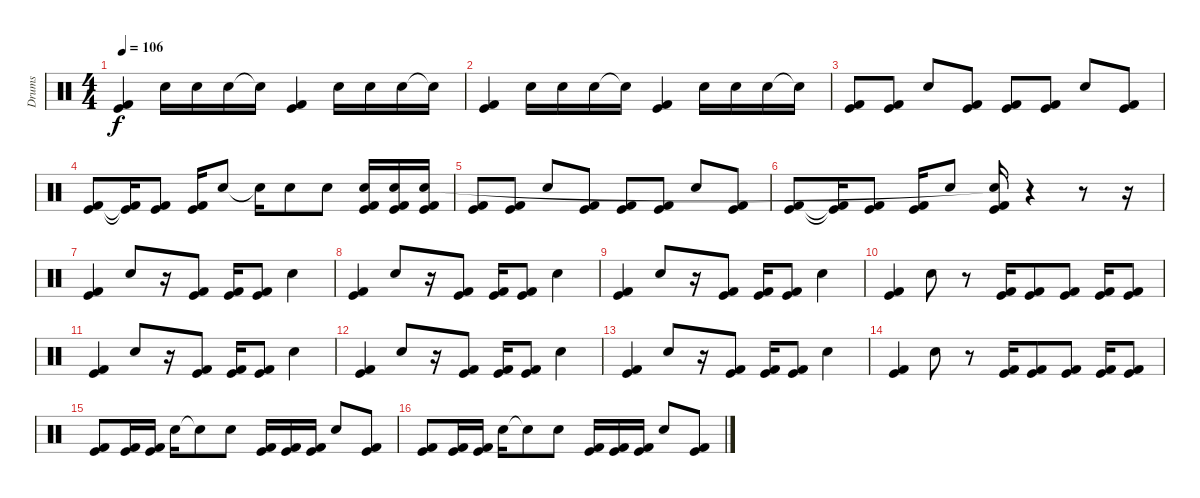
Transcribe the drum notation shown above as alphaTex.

\track ("Drums" "Drums") {instrument percussion}
\staff {score}
\articulation defaults
\ts (4 4)
\tempo 106
\clef neutral
\ks c
("Kick (hit)" "Kick (hit) 2").4{dy f} "Electric Snare (hit)".16 "Electric Snare (hit)".16 "Electric Snare (hit)".16 "Electric Snare (hit)"{t}.16 ("Kick (hit)" "Kick (hit) 2").4 "Electric Snare (hit)".16 "Electric Snare (hit)".16 "Electric Snare (hit)".16 "Electric Snare (hit)"{t}.16 |
("Kick (hit)" "Kick (hit) 2").4 "Electric Snare (hit)".16 "Electric Snare (hit)".16 "Electric Snare (hit)".16 "Electric Snare (hit)"{t}.16 ("Kick (hit)" "Kick (hit) 2").4 "Electric Snare (hit)".16 "Electric Snare (hit)".16 "Electric Snare (hit)".16 "Snare (hit)"{t}.16 |
("Kick (hit)" "Kick (hit) 2").8 ("Kick (hit)" "Kick (hit) 2").8 "Electric Snare (hit)".8 ("Kick (hit)" "Kick (hit) 2").8 ("Kick (hit)" "Kick (hit) 2").8 ("Kick (hit)" "Kick (hit) 2").8 "Electric Snare (hit)".8 ("Kick (hit)" "Kick (hit) 2").8 |
("Kick (hit)" "Kick (hit) 2").8 ("Kick (hit)"{t} "Kick (hit) 2"{t}).16 ("Kick (hit)" "Kick (hit) 2").8 ("Kick (hit)" "Kick (hit) 2").16 "Electric Snare (hit)".8 "Snare (hit)"{t}.16 "Electric Snare (hit)".8 "Electric Snare (hit)".8 ("Kick (hit)" "Kick (hit) 2" "Electric Snare (hit)").16 ("Kick (hit)" "Kick (hit) 2" "Electric Snare (hit)").16 ("Kick (hit)" "Kick (hit) 2" "Electric Snare (hit)").16 |
("Kick (hit)" "Kick (hit) 2").8 ("Kick (hit)" "Kick (hit) 2").8 "Electric Snare (hit)".8 ("Kick (hit)" "Kick (hit) 2").8 ("Kick (hit)" "Kick (hit) 2").8 ("Kick (hit)" "Kick (hit) 2").8 "Electric Snare (hit)".8 ("Kick (hit)" "Kick (hit) 2").8 |
("Kick (hit)" "Kick (hit) 2").8 ("Kick (hit)"{t} "Kick (hit) 2"{t}).16 ("Kick (hit)" "Kick (hit) 2").8 ("Kick (hit)" "Kick (hit) 2").16 "Electric Snare (hit)".8 ("Kick (hit)" "Kick (hit) 2" "Snare (hit)"{t}).16 r.4 r.8 r.16 |
("Kick (hit)" "Kick (hit) 2").4 "Snare (hit) 2".8 r.16 ("Kick (hit)" "Kick (hit) 2").8 ("Kick (hit)" "Kick (hit) 2").16 ("Kick (hit)" "Kick (hit) 2").8 "Snare (hit) 2".4 |
("Kick (hit)" "Kick (hit) 2").4 "Snare (hit) 2".8 r.16 ("Kick (hit)" "Kick (hit) 2").8 ("Kick (hit)" "Kick (hit) 2").16 ("Kick (hit)" "Kick (hit) 2").8 "Snare (hit) 2".4 |
("Kick (hit)" "Kick (hit) 2").4 "Snare (hit) 2".8 r.16 ("Kick (hit)" "Kick (hit) 2").8 ("Kick (hit)" "Kick (hit) 2").16 ("Kick (hit)" "Kick (hit) 2").8 "Snare (hit) 2".4 |
("Kick (hit)" "Kick (hit) 2").4 "Snare (hit) 2".8 r.8 ("Kick (hit)" "Kick (hit) 2").16 ("Kick (hit)" "Kick (hit) 2").8 ("Kick (hit)" "Kick (hit) 2").8 ("Kick (hit)" "Kick (hit) 2").16 ("Kick (hit)" "Kick (hit) 2").8 |
("Kick (hit)" "Kick (hit) 2").4 "Snare (hit) 2".8 r.16 ("Kick (hit)" "Kick (hit) 2").8 ("Kick (hit)" "Kick (hit) 2").16 ("Kick (hit)" "Kick (hit) 2").8 "Snare (hit) 2".4 |
("Kick (hit)" "Kick (hit) 2").4 "Snare (hit) 2".8 r.16 ("Kick (hit)" "Kick (hit) 2").8 ("Kick (hit)" "Kick (hit) 2").16 ("Kick (hit)" "Kick (hit) 2").8 "Snare (hit) 2".4 |
("Kick (hit)" "Kick (hit) 2").4 "Snare (hit) 2".8 r.16 ("Kick (hit)" "Kick (hit) 2").8 ("Kick (hit)" "Kick (hit) 2").16 ("Kick (hit)" "Kick (hit) 2").8 "Snare (hit) 2".4 |
("Kick (hit)" "Kick (hit) 2").4 "Snare (hit) 2".8 r.8 ("Kick (hit)" "Kick (hit) 2").16 ("Kick (hit)" "Kick (hit) 2").8 ("Kick (hit)" "Kick (hit) 2").8 ("Kick (hit)" "Kick (hit) 2").16 ("Kick (hit)" "Kick (hit) 2").8 |
("Kick (hit)" "Kick (hit) 2").8 ("Kick (hit)" "Kick (hit) 2").16 ("Kick (hit)" "Kick (hit) 2").16 "Electric Snare (hit)".16 "Snare (hit) 2"{t}.8 "Electric Snare (hit)".8 ("Kick (hit)" "Kick (hit) 2").16 ("Kick (hit)" "Kick (hit) 2").16 ("Kick (hit)" "Kick (hit) 2").16 "Electric Snare (hit)".8 ("Kick (hit)" "Kick (hit) 2").8 |
("Kick (hit)" "Kick (hit) 2").8 ("Kick (hit)" "Kick (hit) 2").16 ("Kick (hit)" "Kick (hit) 2").16 "Electric Snare (hit)".16 "Snare (hit) 2"{t}.8 "Electric Snare (hit)".8 ("Kick (hit)" "Kick (hit) 2").16 ("Kick (hit)" "Kick (hit) 2").16 ("Kick (hit)" "Kick (hit) 2").16 "Electric Snare (hit)".8 ("Kick (hit)" "Kick (hit) 2").8
